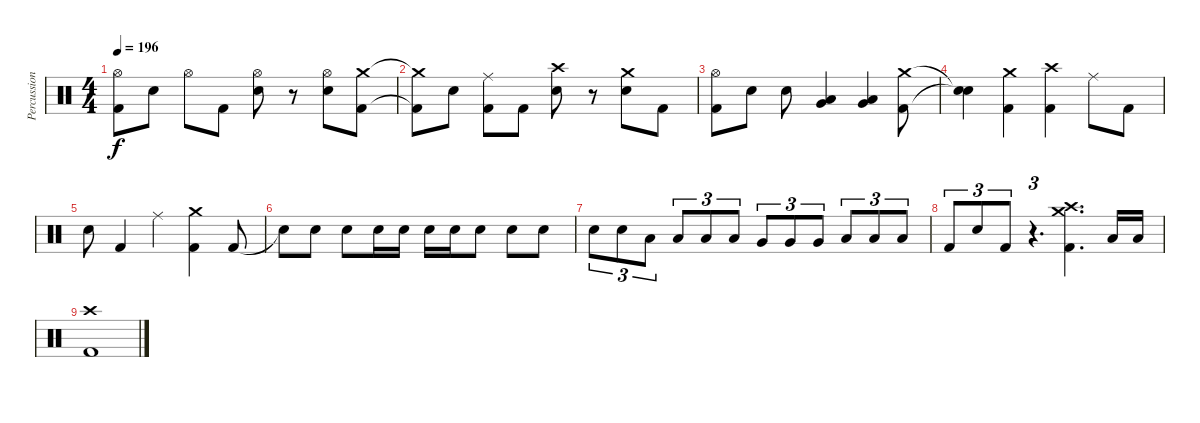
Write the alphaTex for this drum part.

\track ("Percussion" "Percussion") {instrument percussion}
\staff {score}
\articulation defaults
\ts (4 4)
\tempo 196
\clef neutral
\ks c
("Hi-Hat (open)" "Kick (hit) 2").8{dy f} "Electric Snare (hit)".8 "Hi-Hat (open)".8 "Kick (hit) 2".8 ("Hi-Hat (open)" "Electric Snare (hit)").8 r.8 ("Hi-Hat (open)" "Electric Snare (hit)").8 ("Crash medium (hit)" "Kick (hit) 2").8 |
("Crash medium (hit)"{t} "Kick (hit) 2"{t}).8 "Electric Snare (hit)".8 ("Ride (middle)" "Kick (hit) 2").8 "Kick (hit) 2".8 ("Crash high (hit)" "Electric Snare (hit)").8 r.8 ("Crash medium (hit)" "Electric Snare (hit)").8 "Kick (hit) 2".8 |
("Hi-Hat (open)" "Kick (hit) 2").8 "Electric Snare (hit)".8 "Electric Snare (hit)".8 ("Very Low Tom (hit)" "Low Floor Tom (hit)").4 ("Very Low Tom (hit)" "Low Floor Tom (hit)").4 ("Crash medium (hit)" "Kick (hit) 2").8 |
("Snare (hit)"{t} "Snare (hit)"{t}).4 ("Crash medium (hit)" "Kick (hit) 2").4 ("Crash high (hit)" "Kick (hit) 2").4 "Ride (middle)".8 "Kick (hit) 2".8 |
"Electric Snare (hit)".8 "Kick (hit) 2".4 "Ride (middle)".4 ("Crash medium (hit)" "Kick (hit) 2").4 "Kick (hit) 2".8 |
"Snare (hit)"{t}.8 "Electric Snare (hit)".8 "Electric Snare (hit)".8 "Electric Snare (hit)".16 "Electric Snare (hit)".16 "Electric Snare (hit)".16 "Electric Snare (hit)".16 "Electric Snare (hit)".8 "Electric Snare (hit)".8 "Electric Snare (hit)".8 |
"Electric Snare (hit)".8{tu (3 2)} "Electric Snare (hit)".8{tu (3 2)} "Low Tom (hit)".8{tu (3 2)} "Low Tom (hit)".8{tu (3 2)} "Low Tom (hit)".8{tu (3 2)} "Low Tom (hit)".8{tu (3 2)} "Very Low Tom (hit)".8{tu (3 2)} "Very Low Tom (hit)".8{tu (3 2)} "Very Low Tom (hit)".8{tu (3 2)} "Low Floor Tom (hit)".8{tu (3 2)} "Low Floor Tom (hit)".8{tu (3 2)} "Low Floor Tom (hit)".8{tu (3 2)} |
"Kick (hit) 2".8{tu (3 2)} "Electric Snare (hit)".8{tu (3 2)} "Kick (hit) 2".8{tu (3 2)} r.4{d tu (3 2)} ("Crash medium (hit)" "Crash high (hit)" "Kick (hit) 2").4{d} "Low Floor Tom (hit)".16 "Low Floor Tom (hit)".16 |
("Crash high (hit)" "Kick (hit) 2").1
